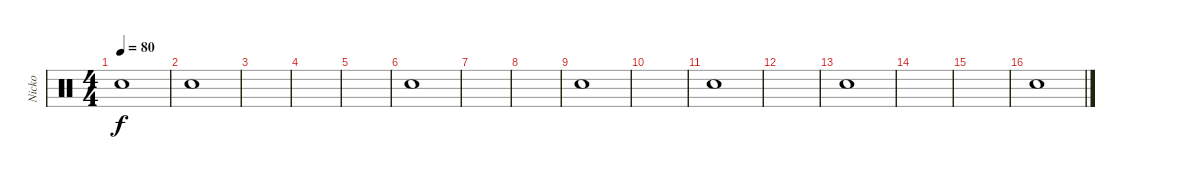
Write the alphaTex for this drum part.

\track ("Nicko" "Nicko") {instrument percussion}
\staff {score}
\articulation defaults
\ts (4 4)
\tempo 80
\clef neutral
\ks c "Snare (hit)".1{dy f}
|
"Snare (hit)".1 |
|
|
|
"Snare (hit)".1 |
|
|
"Snare (hit)".1 |
|
"Snare (hit)".1 |
|
"Snare (hit)".1 |
|
|
"Snare (hit)".1
